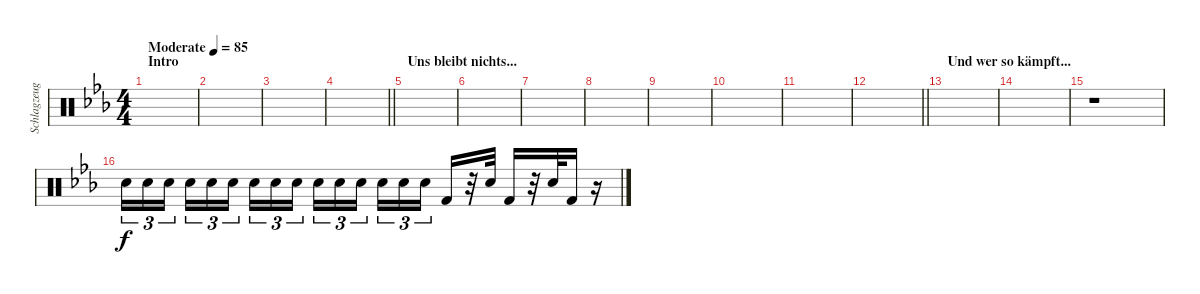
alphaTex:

\track ("Schlagzeug" "Schlagzeug") {instrument percussion}
\staff {score}
\articulation defaults
\ts (4 4)
\section ("" "Intro")
\tempo (85 "Moderate")
\clef neutral
\ks cminor
|
|
|
\barLineRight lightlight
|
\section ("" "Uns bleibt nichts...")
|
|
|
|
|
|
|
\barLineRight lightlight
|
\section ("" "Und wer so kämpft...")
|
|
r.1{volume 0} |
"Electric Snare (hit)".16{tu (3 2) volume 15} "Electric Snare (hit)".16{tu (3 2)} "Electric Snare (hit)".16{tu (3 2) beam splitsecondary} "Electric Snare (hit)".16{tu (3 2)} "Electric Snare (hit)".16{tu (3 2)} "Electric Snare (hit)".16{tu (3 2)} "Electric Snare (hit)".16{tu (3 2)} "Electric Snare (hit)".16{tu (3 2)} "Electric Snare (hit)".16{tu (3 2) beam splitsecondary} "Electric Snare (hit)".16{tu (3 2)} "Electric Snare (hit)".16{tu (3 2)} "Electric Snare (hit)".16{tu (3 2)} "Electric Snare (hit)".16{tu (3 2)} "Electric Snare (hit)".16{tu (3 2)} "Electric Snare (hit)".16{tu (3 2) beam splitsecondary} "Kick (hit) 2".16 r.32 "Electric Snare (hit)".32 "Kick (hit) 2".16 r.32 "Electric Snare (hit)".32 "Kick (hit) 2".16 r.16
